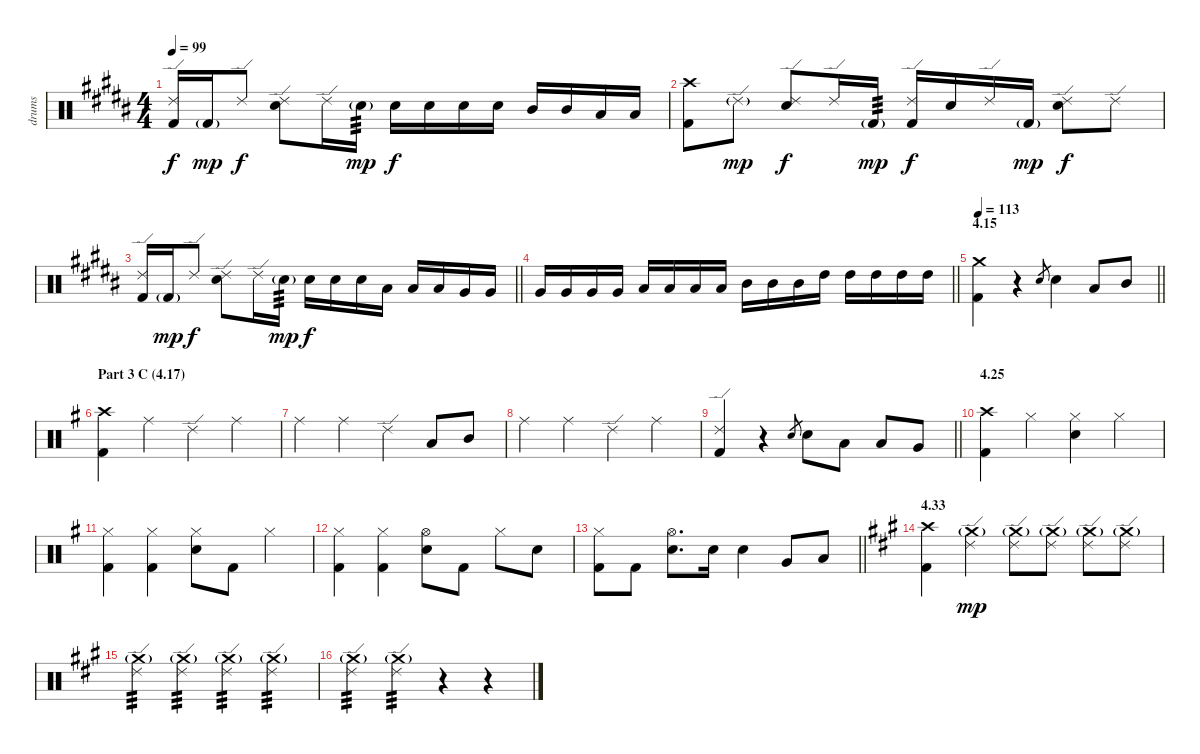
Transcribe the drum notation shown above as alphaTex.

\track ("drums" "drums") {instrument percussion}
\staff {score}
\articulation defaults
\ts (4 4)
\tempo 99
\clef neutral
\ks b
("Ride (edge) 2" "Kick (hit) 2").16{dy f} "Kick (hit) 2"{g}.16{dy mp} "Ride (edge) 2".8{dy f} ("Ride (edge) 2" "Electric Snare (hit)").8 "Ride (edge) 2".16 "Electric Snare (hit)"{g}.16{tp 3 dy mp} "Electric Snare (hit)".16{dy f} "Electric Snare (hit)".16 "Electric Snare (hit)".16 "Electric Snare (hit)".16 "Mid Tom (hit)".16 "Mid Tom (hit)".16 "Low Tom (hit)".16 "Low Tom (hit)".16 |
("Crash high (hit)" "Kick (hit) 2").8 "Ride (edge) 2"{g}.8{dy mp} ("Ride (edge) 2" "Electric Snare (hit)").8{dy f} "Ride (edge) 2".16 "Kick (hit) 2"{g}.16{tp 3 dy mp} ("Ride (edge) 2" "Kick (hit) 2").16{dy f} "Electric Snare (hit)".16 "Ride (edge) 2".16 "Kick (hit) 2"{g}.16{dy mp} ("Ride (edge) 2" "Electric Snare (hit)").8{dy f} "Ride (edge) 2".8 |
\barLineRight lightlight
("Ride (edge) 2" "Kick (hit) 2").16 "Kick (hit) 2"{g}.16{dy mp} "Ride (edge) 2".8{dy f} ("Ride (edge) 2" "Electric Snare (hit)").8 "Ride (edge) 2".16 "Electric Snare (hit)"{g}.16{tp 3 dy mp} "Electric Snare (hit)".16{dy f} "Electric Snare (hit)".16 "Electric Snare (hit)".16 "Low Tom (hit)".16 "Low Tom (hit)".16 "Low Tom (hit)".16 "Very Low Tom (hit)".16 "Very Low Tom (hit)".16 |
\barLineRight lightlight "Very Low Tom (hit)".16 "Very Low Tom (hit)".16 "Very Low Tom (hit)".16 "Very Low Tom (hit)".16 "Low Tom (hit)".16 "Low Tom (hit)".16 "Low Tom (hit)".16 "Low Tom (hit)".16 "Mid Tom (hit)".16 "Mid Tom (hit)".16 "Mid Tom (hit)".16 "High Tom (hit)".16 "High Tom (hit)".16 "High Tom (hit)".16 "High Tom (hit)".16 "High Tom (hit)".16
|
\section ("" "4.15")
\tempo 113
\barLineRight lightlight
("Crash medium (hit)" "Kick (hit) 2").4 r.4 "Electric Snare (hit)".8{gr} "Electric Snare (hit)".4 "Low Tom (hit)".8 "Mid Tom (hit)".8 |
\section ("" "Part 3 C (4.17)")
\ks g
("Crash high (hit)" "Kick (hit) 2").4 "Ride (middle)".4 "Ride (edge) 2".4 "Ride (middle)".4 |
"Ride (middle)".4 "Ride (middle)".4 "Ride (edge) 2".4 "Low Tom (hit)".8 "Mid Tom (hit)".8 |
"Ride (middle)".4 "Ride (middle)".4 "Ride (edge) 2".4 "Ride (middle)".4 |
\barLineRight lightlight
("Ride (edge) 2" "Kick (hit) 2").4 r.4 "Electric Snare (hit)".8{gr} "Electric Snare (hit)".8 "Low Tom (hit)".8 "Low Tom (hit)".8 "Very Low Tom (hit)".8 |
\section ("" "4.25")
("Crash high (hit)" "Kick (hit) 2").4 "Hi-Hat (closed)".4 ("Hi-Hat (closed)" "Electric Snare (hit)").4 "Hi-Hat (closed)".4 |
("Hi-Hat (closed)" "Kick (hit) 2").4 ("Hi-Hat (closed)" "Kick (hit) 2").4 ("Hi-Hat (closed)" "Electric Snare (hit)").8 "Kick (hit) 2".8 "Hi-Hat (closed)".4 |
("Hi-Hat (closed)" "Kick (hit) 2").4 ("Hi-Hat (closed)" "Kick (hit) 2").4 ("Hi-Hat (open)" "Electric Snare (hit)").8 "Kick (hit) 2".8 "Hi-Hat (closed)".8 "Electric Snare (hit)".8 |
\barLineRight lightlight
("Hi-Hat (closed)" "Kick (hit) 2").8 "Kick (hit) 2".8 ("Hi-Hat (open)" "Electric Snare (hit)").8{d} "Electric Snare (hit)".16 "Electric Snare (hit)".4 "Very Low Tom (hit)".8 "Low Tom (hit)".8 |
\section ("" "4.33")
\ks a
("Crash high (hit)" "Kick (hit) 2").4 ("Ride (edge) 2" "Crash medium (hit)"{g}).4{dy mp} ("Ride (edge) 2" "Crash medium (hit)"{g}).8 ("Ride (edge) 2" "Crash medium (hit)"{g}).8 ("Ride (edge) 2" "Crash medium (hit)"{g}).8 ("Ride (edge) 2" "Crash medium (hit)"{g}).8 |
("Ride (edge) 2" "Crash medium (hit)"{g}).4{tp 3} ("Ride (edge) 2" "Crash medium (hit)"{g}).4{tp 3} ("Ride (edge) 2" "Crash medium (hit)"{g}).4{tp 3} ("Ride (edge) 2" "Crash medium (hit)"{g}).4{tp 3} |
("Ride (edge) 2" "Crash medium (hit)"{g}).4{tp 3} ("Ride (edge) 2" "Crash medium (hit)"{g}).4{tp 3} r.4 r.4
